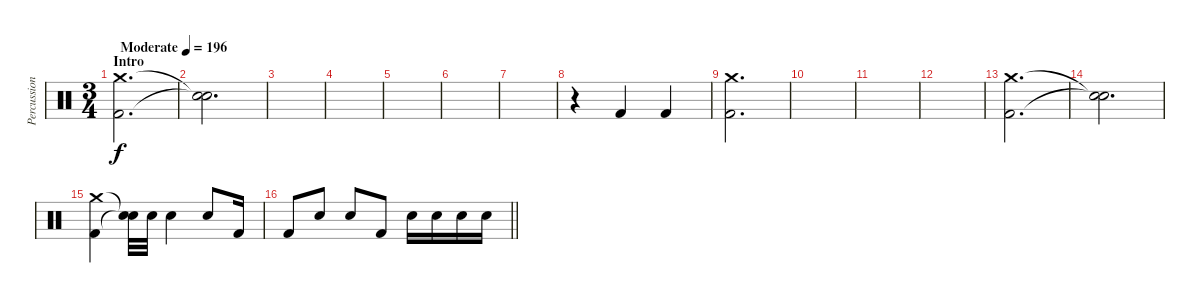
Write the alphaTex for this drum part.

\track ("Percussion" "Percussion") {instrument percussion}
\staff {score}
\articulation defaults
\ts (3 4)
\section ("" "Intro")
\tempo (196 "Moderate")
\clef neutral
\ks c
("Crash medium (hit)" "Kick (hit) 2").2{d dy f} |
("Snare (hit)"{t} "Snare (hit)"{t}).2{d} |
|
|
|
|
|
r.4 "Kick (hit) 2".4 "Kick (hit) 2".4 |
("Crash medium (hit)" "Kick (hit) 2").2{d} |
|
|
|
("Crash medium (hit)" "Kick (hit) 2").2{d} |
("Snare (hit)"{t} "Snare (hit)"{t}).2{d} |
("Crash medium (hit)" "Kick (hit) 2").4 ("Snare (hit)"{t} "Snare (hit)"{t}).32 "Electric Snare (hit)".32 "Electric Snare (hit)".4 "Electric Snare (hit)".8 "Kick (hit) 2".16 |
\barLineRight lightlight "Kick (hit) 2".8 "Electric Snare (hit)".8 "Electric Snare (hit)".8 "Kick (hit) 2".8 "Electric Snare (hit)".16 "Electric Snare (hit)".16 "Electric Snare (hit)".16 "Electric Snare (hit)".16
